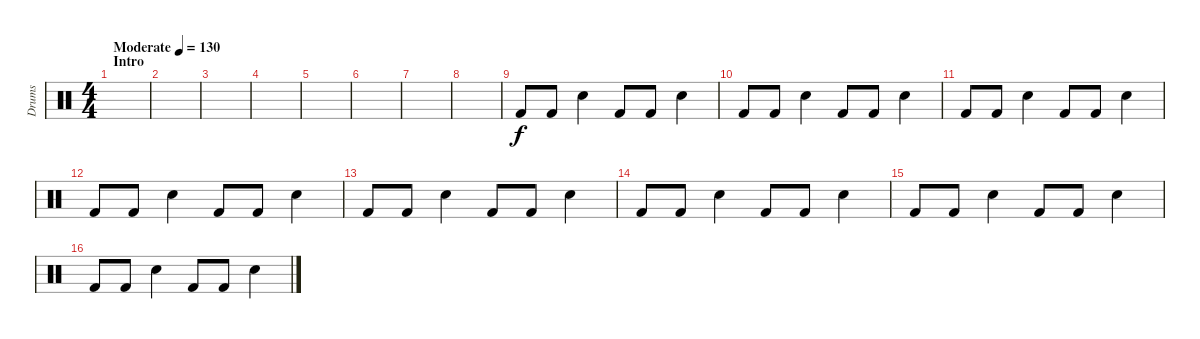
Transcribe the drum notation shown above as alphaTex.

\track ("Drums" "Drums") {instrument percussion}
\staff {score}
\articulation defaults
\ts (4 4)
\section ("" "Intro")
\tempo (130 "Moderate")
\clef neutral
\ks c
|
|
|
|
|
|
|
|
"Kick (hit) 2".8 "Kick (hit) 2".8 "Snare (hit) 2".4 "Kick (hit) 2".8 "Kick (hit) 2".8 "Snare (hit) 2".4 |
"Kick (hit) 2".8 "Kick (hit) 2".8 "Snare (hit) 2".4 "Kick (hit) 2".8 "Kick (hit) 2".8 "Snare (hit) 2".4 |
"Kick (hit) 2".8 "Kick (hit) 2".8 "Snare (hit) 2".4 "Kick (hit) 2".8 "Kick (hit) 2".8 "Snare (hit) 2".4 |
"Kick (hit) 2".8 "Kick (hit) 2".8 "Snare (hit) 2".4 "Kick (hit) 2".8 "Kick (hit) 2".8 "Snare (hit) 2".4 |
"Kick (hit) 2".8 "Kick (hit) 2".8 "Snare (hit) 2".4 "Kick (hit) 2".8 "Kick (hit) 2".8 "Snare (hit) 2".4 |
"Kick (hit) 2".8 "Kick (hit) 2".8 "Snare (hit) 2".4 "Kick (hit) 2".8 "Kick (hit) 2".8 "Snare (hit) 2".4 |
"Kick (hit) 2".8 "Kick (hit) 2".8 "Snare (hit) 2".4 "Kick (hit) 2".8 "Kick (hit) 2".8 "Snare (hit) 2".4 |
"Kick (hit) 2".8 "Kick (hit) 2".8 "Snare (hit) 2".4 "Kick (hit) 2".8 "Kick (hit) 2".8 "Snare (hit) 2".4
